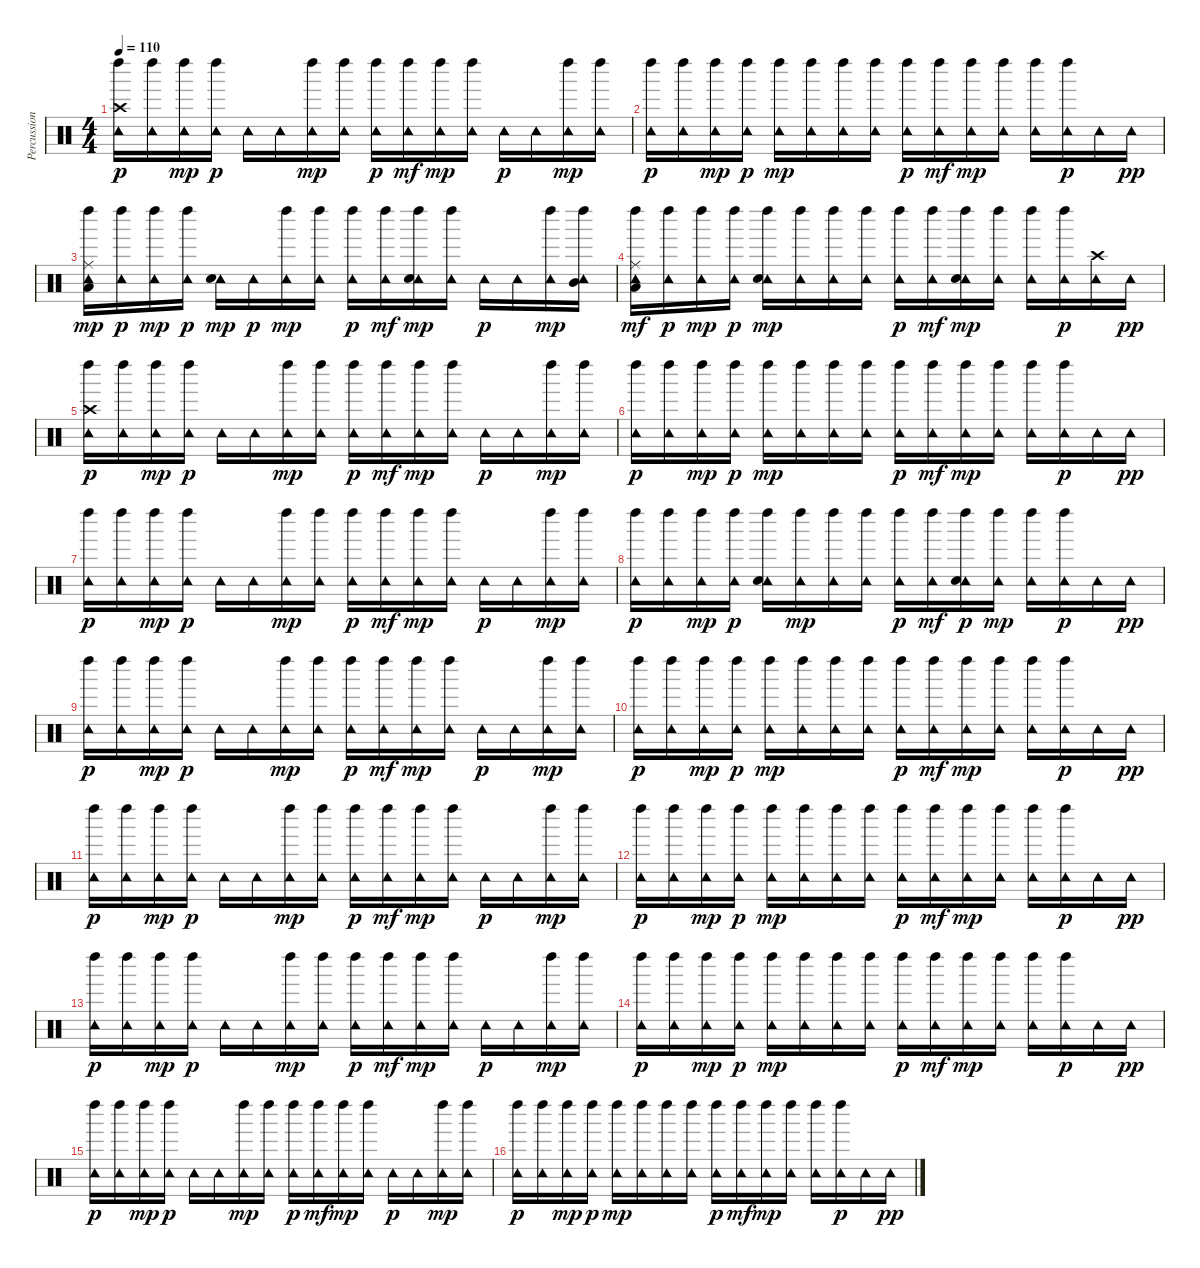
\track ("Percussion" "Percussion") {instrument percussion}
\staff {score}
\articulation defaults
\ts (4 4)
\tempo 110
\clef neutral
\ks c
("Tambourine (hit)" "Left Maraca (hit)" "Crash high (hit)").16{dy p} ("Left Maraca (hit)" "Tambourine (hit)").16 ("Tambourine (hit)" "Left Maraca (hit)").16{dy mp} ("Left Maraca (hit)" "Tambourine (hit)").16{dy p} "Tambourine (hit)".16 "Tambourine (hit)".16 ("Tambourine (hit)" "Left Maraca (hit)").16{dy mp} ("Tambourine (hit)" "Left Maraca (hit)").16 ("Tambourine (hit)" "Left Maraca (hit)").16{dy p} ("Tambourine (hit)" "Left Maraca (hit)").16{dy mf} ("Tambourine (hit)" "Left Maraca (hit)").16{dy mp} ("Tambourine (hit)" "Left Maraca (hit)").16 "Tambourine (hit)".16{dy p} "Tambourine (hit)".16 ("Tambourine (hit)" "Left Maraca (hit)").16{dy mp} ("Tambourine (hit)" "Left Maraca (hit)").16 |
("Tambourine (hit)" "Left Maraca (hit)").16{dy p} ("Left Maraca (hit)" "Tambourine (hit)").16 ("Tambourine (hit)" "Left Maraca (hit)").16{dy mp} ("Left Maraca (hit)" "Tambourine (hit)").16{dy p} ("Tambourine (hit)" "Left Maraca (hit)").16{dy mp} ("Tambourine (hit)" "Left Maraca (hit)").16 ("Tambourine (hit)" "Left Maraca (hit)").16 ("Tambourine (hit)" "Left Maraca (hit)").16 ("Tambourine (hit)" "Left Maraca (hit)").16{dy p} ("Tambourine (hit)" "Left Maraca (hit)").16{dy mf} ("Tambourine (hit)" "Left Maraca (hit)").16{dy mp} ("Tambourine (hit)" "Left Maraca (hit)").16 ("Tambourine (hit)" "Left Maraca (hit)").16 ("Tambourine (hit)" "Left Maraca (hit)").16{dy p} "Tambourine (hit)".16 "Tambourine (hit)".16{dy pp} |
("Tambourine (hit)" "Left Maraca (hit)" "Ride (middle)" "Low Tom (hit)").16{dy mp} ("Left Maraca (hit)" "Tambourine (hit)").16{dy p} ("Tambourine (hit)" "Left Maraca (hit)").16{dy mp} ("Left Maraca (hit)" "Tambourine (hit)").16{dy p} ("Tambourine (hit)" "Electric Snare (hit)").16{dy mp} "Tambourine (hit)".16{dy p} ("Tambourine (hit)" "Left Maraca (hit)").16{dy mp} ("Tambourine (hit)" "Left Maraca (hit)").16 ("Tambourine (hit)" "Left Maraca (hit)").16{dy p} ("Tambourine (hit)" "Left Maraca (hit)").16{dy mf} ("Tambourine (hit)" "Left Maraca (hit)" "Electric Snare (hit)").16{dy mp} ("Tambourine (hit)" "Left Maraca (hit)").16 "Tambourine (hit)".16{dy p} "Tambourine (hit)".16 ("Tambourine (hit)" "Left Maraca (hit)").16{dy mp} ("Tambourine (hit)" "Left Maraca (hit)" "Mid Tom (hit)").16 |
("Tambourine (hit)" "Left Maraca (hit)" "Low Tom (hit)" "Ride (middle)").16{dy mf} ("Left Maraca (hit)" "Tambourine (hit)").16{dy p} ("Tambourine (hit)" "Left Maraca (hit)").16{dy mp} ("Left Maraca (hit)" "Tambourine (hit)").16{dy p} ("Tambourine (hit)" "Left Maraca (hit)" "Electric Snare (hit)").16{dy mp} ("Tambourine (hit)" "Left Maraca (hit)").16 ("Tambourine (hit)" "Left Maraca (hit)").16 ("Tambourine (hit)" "Left Maraca (hit)").16 ("Tambourine (hit)" "Left Maraca (hit)").16{dy p} ("Tambourine (hit)" "Left Maraca (hit)").16{dy mf} ("Tambourine (hit)" "Left Maraca (hit)" "Electric Snare (hit)").16{dy mp} ("Tambourine (hit)" "Left Maraca (hit)").16 ("Tambourine (hit)" "Left Maraca (hit)").16 ("Tambourine (hit)" "Left Maraca (hit)").16{dy p} ("Tambourine (hit)" "Crash high (hit)").16 "Tambourine (hit)".16{dy pp} |
("Tambourine (hit)" "Left Maraca (hit)" "Crash high (hit)").16{dy p} ("Left Maraca (hit)" "Tambourine (hit)").16 ("Tambourine (hit)" "Left Maraca (hit)").16{dy mp} ("Left Maraca (hit)" "Tambourine (hit)").16{dy p} "Tambourine (hit)".16 "Tambourine (hit)".16 ("Tambourine (hit)" "Left Maraca (hit)").16{dy mp} ("Tambourine (hit)" "Left Maraca (hit)").16 ("Tambourine (hit)" "Left Maraca (hit)").16{dy p} ("Tambourine (hit)" "Left Maraca (hit)").16{dy mf} ("Tambourine (hit)" "Left Maraca (hit)").16{dy mp} ("Tambourine (hit)" "Left Maraca (hit)").16 "Tambourine (hit)".16{dy p} "Tambourine (hit)".16 ("Tambourine (hit)" "Left Maraca (hit)").16{dy mp} ("Tambourine (hit)" "Left Maraca (hit)").16 |
("Tambourine (hit)" "Left Maraca (hit)").16{dy p} ("Left Maraca (hit)" "Tambourine (hit)").16 ("Tambourine (hit)" "Left Maraca (hit)").16{dy mp} ("Left Maraca (hit)" "Tambourine (hit)").16{dy p} ("Tambourine (hit)" "Left Maraca (hit)").16{dy mp} ("Tambourine (hit)" "Left Maraca (hit)").16 ("Tambourine (hit)" "Left Maraca (hit)").16 ("Tambourine (hit)" "Left Maraca (hit)").16 ("Tambourine (hit)" "Left Maraca (hit)").16{dy p} ("Tambourine (hit)" "Left Maraca (hit)").16{dy mf} ("Tambourine (hit)" "Left Maraca (hit)").16{dy mp} ("Tambourine (hit)" "Left Maraca (hit)").16 ("Tambourine (hit)" "Left Maraca (hit)").16 ("Tambourine (hit)" "Left Maraca (hit)").16{dy p} "Tambourine (hit)".16 "Tambourine (hit)".16{dy pp} |
("Tambourine (hit)" "Left Maraca (hit)").16{dy p} ("Left Maraca (hit)" "Tambourine (hit)").16 ("Tambourine (hit)" "Left Maraca (hit)").16{dy mp} ("Left Maraca (hit)" "Tambourine (hit)").16{dy p} "Tambourine (hit)".16 "Tambourine (hit)".16 ("Tambourine (hit)" "Left Maraca (hit)").16{dy mp} ("Tambourine (hit)" "Left Maraca (hit)").16 ("Tambourine (hit)" "Left Maraca (hit)").16{dy p} ("Tambourine (hit)" "Left Maraca (hit)").16{dy mf} ("Tambourine (hit)" "Left Maraca (hit)").16{dy mp} ("Tambourine (hit)" "Left Maraca (hit)").16 "Tambourine (hit)".16{dy p} "Tambourine (hit)".16 ("Tambourine (hit)" "Left Maraca (hit)").16{dy mp} ("Tambourine (hit)" "Left Maraca (hit)").16 |
("Tambourine (hit)" "Left Maraca (hit)").16{dy p} ("Left Maraca (hit)" "Tambourine (hit)").16 ("Tambourine (hit)" "Left Maraca (hit)").16{dy mp} ("Left Maraca (hit)" "Tambourine (hit)").16{dy p} ("Tambourine (hit)" "Left Maraca (hit)" "Electric Snare (hit)").16 ("Tambourine (hit)" "Left Maraca (hit)").16{dy mp} ("Tambourine (hit)" "Left Maraca (hit)").16 ("Tambourine (hit)" "Left Maraca (hit)").16 ("Tambourine (hit)" "Left Maraca (hit)").16{dy p} ("Tambourine (hit)" "Left Maraca (hit)").16{dy mf} ("Tambourine (hit)" "Left Maraca (hit)" "Electric Snare (hit)").16{dy p} ("Tambourine (hit)" "Left Maraca (hit)").16{dy mp} ("Tambourine (hit)" "Left Maraca (hit)").16 ("Tambourine (hit)" "Left Maraca (hit)").16{dy p} "Tambourine (hit)".16 "Tambourine (hit)".16{dy pp} |
("Tambourine (hit)" "Left Maraca (hit)").16{dy p} ("Left Maraca (hit)" "Tambourine (hit)").16 ("Tambourine (hit)" "Left Maraca (hit)").16{dy mp} ("Left Maraca (hit)" "Tambourine (hit)").16{dy p} "Tambourine (hit)".16 "Tambourine (hit)".16 ("Tambourine (hit)" "Left Maraca (hit)").16{dy mp} ("Tambourine (hit)" "Left Maraca (hit)").16 ("Tambourine (hit)" "Left Maraca (hit)").16{dy p} ("Tambourine (hit)" "Left Maraca (hit)").16{dy mf} ("Tambourine (hit)" "Left Maraca (hit)").16{dy mp} ("Tambourine (hit)" "Left Maraca (hit)").16 "Tambourine (hit)".16{dy p} "Tambourine (hit)".16 ("Tambourine (hit)" "Left Maraca (hit)").16{dy mp} ("Tambourine (hit)" "Left Maraca (hit)").16 |
("Tambourine (hit)" "Left Maraca (hit)").16{dy p} ("Left Maraca (hit)" "Tambourine (hit)").16 ("Tambourine (hit)" "Left Maraca (hit)").16{dy mp} ("Left Maraca (hit)" "Tambourine (hit)").16{dy p} ("Tambourine (hit)" "Left Maraca (hit)").16{dy mp} ("Tambourine (hit)" "Left Maraca (hit)").16 ("Tambourine (hit)" "Left Maraca (hit)").16 ("Tambourine (hit)" "Left Maraca (hit)").16 ("Tambourine (hit)" "Left Maraca (hit)").16{dy p} ("Tambourine (hit)" "Left Maraca (hit)").16{dy mf} ("Tambourine (hit)" "Left Maraca (hit)").16{dy mp} ("Tambourine (hit)" "Left Maraca (hit)").16 ("Tambourine (hit)" "Left Maraca (hit)").16 ("Tambourine (hit)" "Left Maraca (hit)").16{dy p} "Tambourine (hit)".16 "Tambourine (hit)".16{dy pp} |
("Tambourine (hit)" "Left Maraca (hit)").16{dy p} ("Left Maraca (hit)" "Tambourine (hit)").16 ("Tambourine (hit)" "Left Maraca (hit)").16{dy mp} ("Left Maraca (hit)" "Tambourine (hit)").16{dy p} "Tambourine (hit)".16 "Tambourine (hit)".16 ("Tambourine (hit)" "Left Maraca (hit)").16{dy mp} ("Tambourine (hit)" "Left Maraca (hit)").16 ("Tambourine (hit)" "Left Maraca (hit)").16{dy p} ("Tambourine (hit)" "Left Maraca (hit)").16{dy mf} ("Tambourine (hit)" "Left Maraca (hit)").16{dy mp} ("Tambourine (hit)" "Left Maraca (hit)").16 "Tambourine (hit)".16{dy p} "Tambourine (hit)".16 ("Tambourine (hit)" "Left Maraca (hit)").16{dy mp} ("Tambourine (hit)" "Left Maraca (hit)").16 |
("Tambourine (hit)" "Left Maraca (hit)").16{dy p} ("Left Maraca (hit)" "Tambourine (hit)").16 ("Tambourine (hit)" "Left Maraca (hit)").16{dy mp} ("Left Maraca (hit)" "Tambourine (hit)").16{dy p} ("Tambourine (hit)" "Left Maraca (hit)").16{dy mp} ("Tambourine (hit)" "Left Maraca (hit)").16 ("Tambourine (hit)" "Left Maraca (hit)").16 ("Tambourine (hit)" "Left Maraca (hit)").16 ("Tambourine (hit)" "Left Maraca (hit)").16{dy p} ("Tambourine (hit)" "Left Maraca (hit)").16{dy mf} ("Tambourine (hit)" "Left Maraca (hit)").16{dy mp} ("Tambourine (hit)" "Left Maraca (hit)").16 ("Tambourine (hit)" "Left Maraca (hit)").16 ("Tambourine (hit)" "Left Maraca (hit)").16{dy p} "Tambourine (hit)".16 "Tambourine (hit)".16{dy pp} |
("Tambourine (hit)" "Left Maraca (hit)").16{dy p} ("Left Maraca (hit)" "Tambourine (hit)").16 ("Tambourine (hit)" "Left Maraca (hit)").16{dy mp} ("Left Maraca (hit)" "Tambourine (hit)").16{dy p} "Tambourine (hit)".16 "Tambourine (hit)".16 ("Tambourine (hit)" "Left Maraca (hit)").16{dy mp} ("Tambourine (hit)" "Left Maraca (hit)").16 ("Tambourine (hit)" "Left Maraca (hit)").16{dy p} ("Tambourine (hit)" "Left Maraca (hit)").16{dy mf} ("Tambourine (hit)" "Left Maraca (hit)").16{dy mp} ("Tambourine (hit)" "Left Maraca (hit)").16 "Tambourine (hit)".16{dy p} "Tambourine (hit)".16 ("Tambourine (hit)" "Left Maraca (hit)").16{dy mp} ("Tambourine (hit)" "Left Maraca (hit)").16 |
("Tambourine (hit)" "Left Maraca (hit)").16{dy p} ("Left Maraca (hit)" "Tambourine (hit)").16 ("Tambourine (hit)" "Left Maraca (hit)").16{dy mp} ("Left Maraca (hit)" "Tambourine (hit)").16{dy p} ("Tambourine (hit)" "Left Maraca (hit)").16{dy mp} ("Tambourine (hit)" "Left Maraca (hit)").16 ("Tambourine (hit)" "Left Maraca (hit)").16 ("Tambourine (hit)" "Left Maraca (hit)").16 ("Tambourine (hit)" "Left Maraca (hit)").16{dy p} ("Tambourine (hit)" "Left Maraca (hit)").16{dy mf} ("Tambourine (hit)" "Left Maraca (hit)").16{dy mp} ("Tambourine (hit)" "Left Maraca (hit)").16 ("Tambourine (hit)" "Left Maraca (hit)").16 ("Tambourine (hit)" "Left Maraca (hit)").16{dy p} "Tambourine (hit)".16 "Tambourine (hit)".16{dy pp} |
("Tambourine (hit)" "Left Maraca (hit)").16{dy p} ("Left Maraca (hit)" "Tambourine (hit)").16 ("Tambourine (hit)" "Left Maraca (hit)").16{dy mp} ("Left Maraca (hit)" "Tambourine (hit)").16{dy p} "Tambourine (hit)".16 "Tambourine (hit)".16 ("Tambourine (hit)" "Left Maraca (hit)").16{dy mp} ("Tambourine (hit)" "Left Maraca (hit)").16 ("Tambourine (hit)" "Left Maraca (hit)").16{dy p} ("Tambourine (hit)" "Left Maraca (hit)").16{dy mf} ("Tambourine (hit)" "Left Maraca (hit)").16{dy mp} ("Tambourine (hit)" "Left Maraca (hit)").16 "Tambourine (hit)".16{dy p} "Tambourine (hit)".16 ("Tambourine (hit)" "Left Maraca (hit)").16{dy mp} ("Tambourine (hit)" "Left Maraca (hit)").16 |
("Tambourine (hit)" "Left Maraca (hit)").16{dy p} ("Left Maraca (hit)" "Tambourine (hit)").16 ("Tambourine (hit)" "Left Maraca (hit)").16{dy mp} ("Left Maraca (hit)" "Tambourine (hit)").16{dy p} ("Tambourine (hit)" "Left Maraca (hit)").16{dy mp} ("Tambourine (hit)" "Left Maraca (hit)").16 ("Tambourine (hit)" "Left Maraca (hit)").16 ("Tambourine (hit)" "Left Maraca (hit)").16 ("Tambourine (hit)" "Left Maraca (hit)").16{dy p} ("Tambourine (hit)" "Left Maraca (hit)").16{dy mf} ("Tambourine (hit)" "Left Maraca (hit)").16{dy mp} ("Tambourine (hit)" "Left Maraca (hit)").16 ("Tambourine (hit)" "Left Maraca (hit)").16 ("Tambourine (hit)" "Left Maraca (hit)").16{dy p} "Tambourine (hit)".16 "Tambourine (hit)".16{dy pp}
